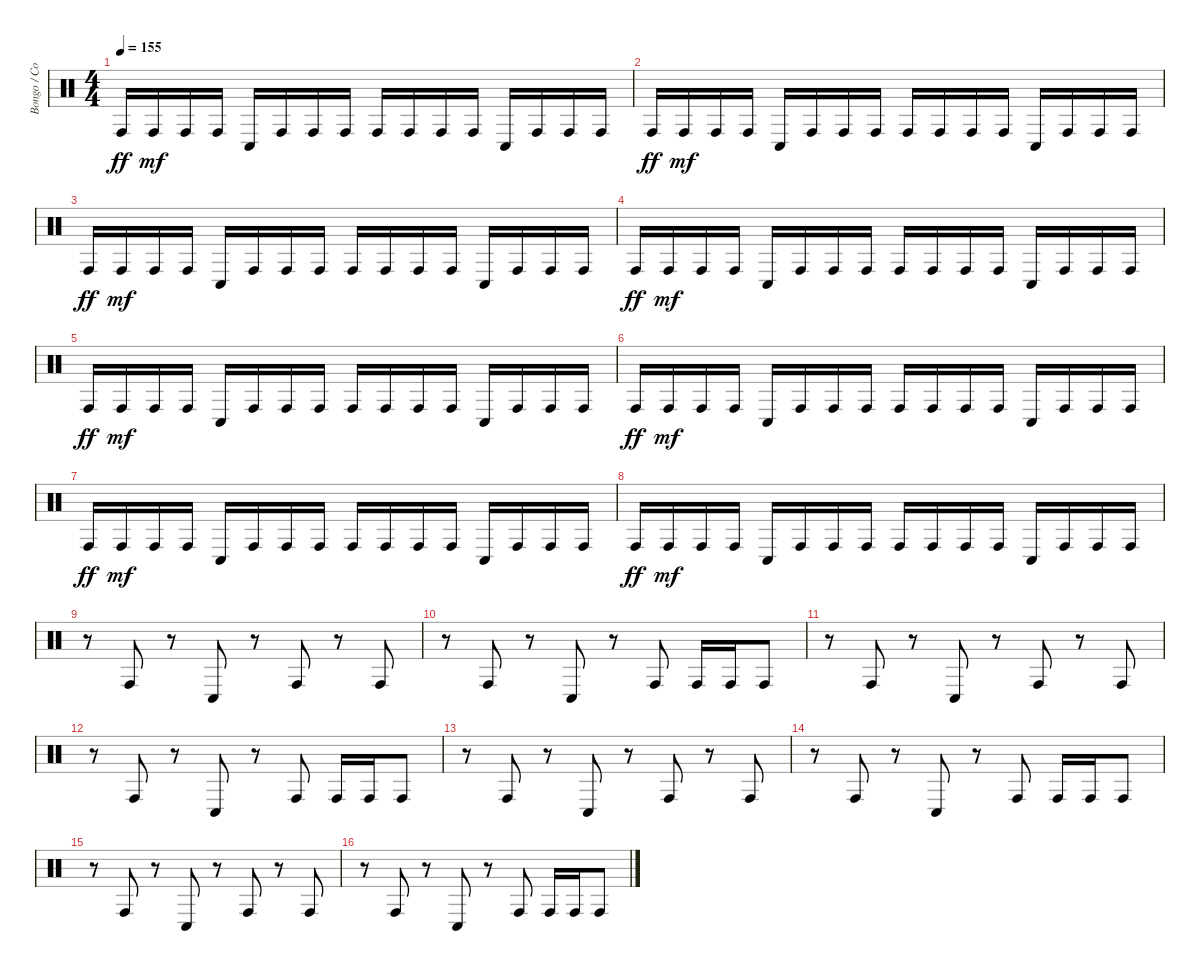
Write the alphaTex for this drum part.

\track ("Bongo / Conga" "Bongo / Co") {instrument percussion}
\staff {score}
\articulation defaults
\ts (4 4)
\tempo 155
\clef neutral
\ks c "Conga high (hit)".16{dy ff} "Conga high (hit)".16{dy mf} "Conga high (hit)".16 "Conga high (hit)".16 "Conga low (hit)".16 "Conga high (hit)".16 "Conga high (hit)".16 "Conga high (hit)".16 "Conga high (hit)".16 "Conga high (hit)".16 "Conga high (hit)".16 "Conga high (hit)".16 "Conga low (hit)".16 "Conga high (hit)".16 "Conga high (hit)".16 "Conga high (hit)".16
|
"Conga high (hit)".16{dy ff} "Conga high (hit)".16{dy mf} "Conga high (hit)".16 "Conga high (hit)".16 "Conga low (hit)".16 "Conga high (hit)".16 "Conga high (hit)".16 "Conga high (hit)".16 "Conga high (hit)".16 "Conga high (hit)".16 "Conga high (hit)".16 "Conga high (hit)".16 "Conga low (hit)".16 "Conga high (hit)".16 "Conga high (hit)".16 "Conga high (hit)".16 |
"Conga high (hit)".16{dy ff} "Conga high (hit)".16{dy mf} "Conga high (hit)".16 "Conga high (hit)".16 "Conga low (hit)".16 "Conga high (hit)".16 "Conga high (hit)".16 "Conga high (hit)".16 "Conga high (hit)".16 "Conga high (hit)".16 "Conga high (hit)".16 "Conga high (hit)".16 "Conga low (hit)".16 "Conga high (hit)".16 "Conga high (hit)".16 "Conga high (hit)".16 |
"Conga high (hit)".16{dy ff} "Conga high (hit)".16{dy mf} "Conga high (hit)".16 "Conga high (hit)".16 "Conga low (hit)".16 "Conga high (hit)".16 "Conga high (hit)".16 "Conga high (hit)".16 "Conga high (hit)".16 "Conga high (hit)".16 "Conga high (hit)".16 "Conga high (hit)".16 "Conga low (hit)".16 "Conga high (hit)".16 "Conga high (hit)".16 "Conga high (hit)".16 |
"Conga high (hit)".16{dy ff} "Conga high (hit)".16{dy mf} "Conga high (hit)".16 "Conga high (hit)".16 "Conga low (hit)".16 "Conga high (hit)".16 "Conga high (hit)".16 "Conga high (hit)".16 "Conga high (hit)".16 "Conga high (hit)".16 "Conga high (hit)".16 "Conga high (hit)".16 "Conga low (hit)".16 "Conga high (hit)".16 "Conga high (hit)".16 "Conga high (hit)".16 |
"Conga high (hit)".16{dy ff} "Conga high (hit)".16{dy mf} "Conga high (hit)".16 "Conga high (hit)".16 "Conga low (hit)".16 "Conga high (hit)".16 "Conga high (hit)".16 "Conga high (hit)".16 "Conga high (hit)".16 "Conga high (hit)".16 "Conga high (hit)".16 "Conga high (hit)".16 "Conga low (hit)".16 "Conga high (hit)".16 "Conga high (hit)".16 "Conga high (hit)".16 |
"Conga high (hit)".16{dy ff} "Conga high (hit)".16{dy mf} "Conga high (hit)".16 "Conga high (hit)".16 "Conga low (hit)".16 "Conga high (hit)".16 "Conga high (hit)".16 "Conga high (hit)".16 "Conga high (hit)".16 "Conga high (hit)".16 "Conga high (hit)".16 "Conga high (hit)".16 "Conga low (hit)".16 "Conga high (hit)".16 "Conga high (hit)".16 "Conga high (hit)".16 |
"Conga high (hit)".16{dy ff} "Conga high (hit)".16{dy mf} "Conga high (hit)".16 "Conga high (hit)".16 "Conga low (hit)".16 "Conga high (hit)".16 "Conga high (hit)".16 "Conga high (hit)".16 "Conga high (hit)".16 "Conga high (hit)".16 "Conga high (hit)".16 "Conga high (hit)".16 "Conga low (hit)".16 "Conga high (hit)".16 "Conga high (hit)".16 "Conga high (hit)".16 |
r.8 "Conga high (hit)".8 r.8 "Conga low (hit)".8 r.8 "Conga high (hit)".8 r.8 "Conga high (hit)".8 |
r.8 "Conga high (hit)".8 r.8 "Conga low (hit)".8 r.8 "Conga high (hit)".8 "Conga high (hit)".16 "Conga high (hit)".16 "Conga high (hit)".8 |
r.8 "Conga high (hit)".8 r.8 "Conga low (hit)".8 r.8 "Conga high (hit)".8 r.8 "Conga high (hit)".8 |
r.8 "Conga high (hit)".8 r.8 "Conga low (hit)".8 r.8 "Conga high (hit)".8 "Conga high (hit)".16 "Conga high (hit)".16 "Conga high (hit)".8 |
r.8 "Conga high (hit)".8 r.8 "Conga low (hit)".8 r.8 "Conga high (hit)".8 r.8 "Conga high (hit)".8 |
r.8 "Conga high (hit)".8 r.8 "Conga low (hit)".8 r.8 "Conga high (hit)".8 "Conga high (hit)".16 "Conga high (hit)".16 "Conga high (hit)".8 |
r.8 "Conga high (hit)".8 r.8 "Conga low (hit)".8 r.8 "Conga high (hit)".8 r.8 "Conga high (hit)".8 |
r.8 "Conga high (hit)".8 r.8 "Conga low (hit)".8 r.8 "Conga high (hit)".8 "Conga high (hit)".16 "Conga high (hit)".16 "Conga high (hit)".8
